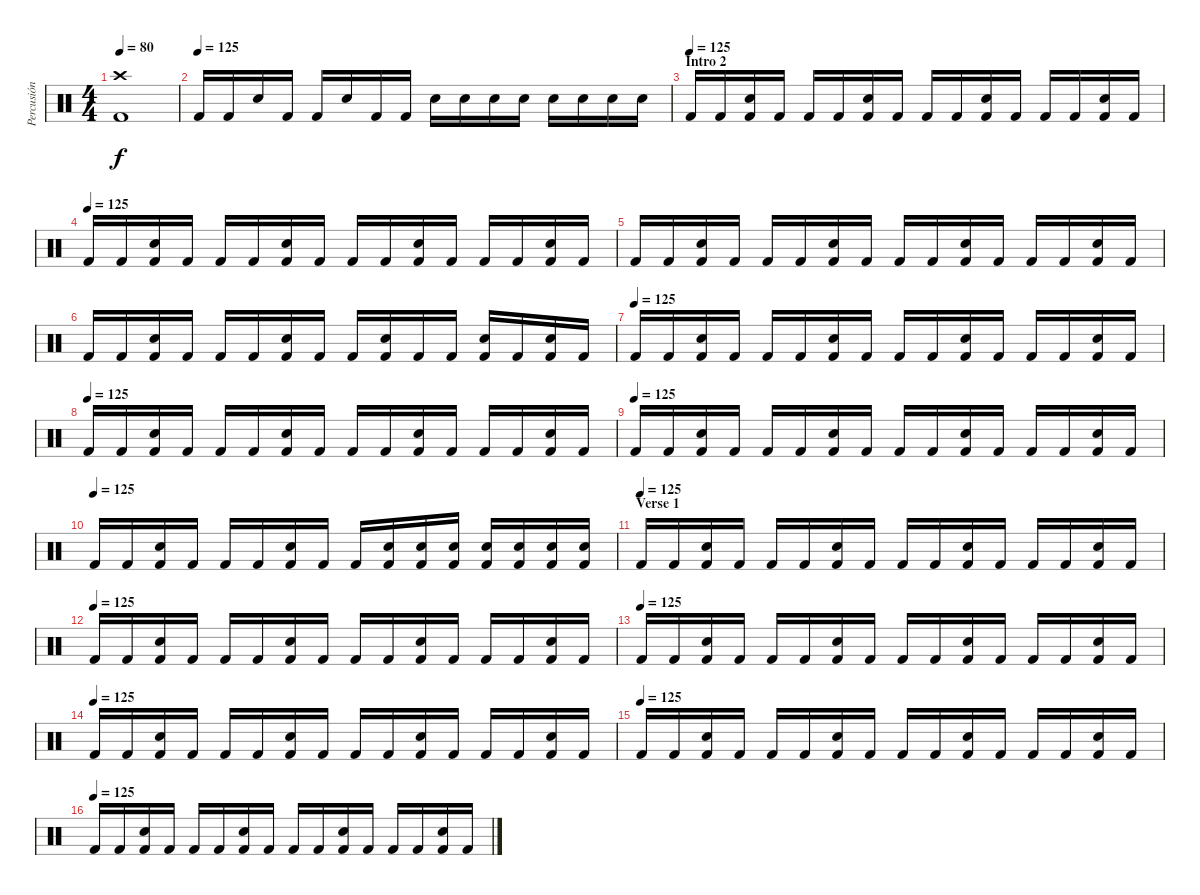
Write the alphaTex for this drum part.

\track ("Percusión" "Percusión") {instrument percussion}
\staff {score}
\articulation defaults
\ts (4 4)
\tempo 80
\clef neutral
\ks c
("Crash high (hit)" "Kick (hit) 2").1{dy f} |
\tempo (125)
"Kick (hit) 2".16 "Kick (hit) 2".16 "Electric Snare (hit)".16 "Kick (hit) 2".16 "Kick (hit) 2".16 "Electric Snare (hit)".16 "Kick (hit) 2".16 "Kick (hit) 2".16 "Electric Snare (hit)".16 "Electric Snare (hit)".16 "Electric Snare (hit)".16 "Electric Snare (hit)".16 "Electric Snare (hit)".16 "Electric Snare (hit)".16 "Electric Snare (hit)".16 "Electric Snare (hit)".16 |
\section ("" "Intro 2")
\tempo (125)
"Kick (hit) 2".16 "Kick (hit) 2".16 ("Electric Snare (hit)" "Kick (hit) 2").16 "Kick (hit) 2".16 "Kick (hit) 2".16 "Kick (hit) 2".16 ("Electric Snare (hit)" "Kick (hit) 2").16 "Kick (hit) 2".16 "Kick (hit) 2".16 "Kick (hit) 2".16 ("Electric Snare (hit)" "Kick (hit) 2").16 "Kick (hit) 2".16 "Kick (hit) 2".16 "Kick (hit) 2".16 ("Electric Snare (hit)" "Kick (hit) 2").16 "Kick (hit) 2".16 |
\tempo (125)
"Kick (hit) 2".16 "Kick (hit) 2".16 ("Electric Snare (hit)" "Kick (hit) 2").16 "Kick (hit) 2".16 "Kick (hit) 2".16 "Kick (hit) 2".16 ("Electric Snare (hit)" "Kick (hit) 2").16 "Kick (hit) 2".16 "Kick (hit) 2".16 "Kick (hit) 2".16 ("Electric Snare (hit)" "Kick (hit) 2").16 "Kick (hit) 2".16 "Kick (hit) 2".16 "Kick (hit) 2".16 ("Electric Snare (hit)" "Kick (hit) 2").16 "Kick (hit) 2".16 |
"Kick (hit) 2".16 "Kick (hit) 2".16 ("Electric Snare (hit)" "Kick (hit) 2").16 "Kick (hit) 2".16 "Kick (hit) 2".16 "Kick (hit) 2".16 ("Electric Snare (hit)" "Kick (hit) 2").16 "Kick (hit) 2".16 "Kick (hit) 2".16 "Kick (hit) 2".16 ("Electric Snare (hit)" "Kick (hit) 2").16 "Kick (hit) 2".16 "Kick (hit) 2".16 "Kick (hit) 2".16 ("Electric Snare (hit)" "Kick (hit) 2").16 "Kick (hit) 2".16 |
"Kick (hit) 2".16 "Kick (hit) 2".16 ("Electric Snare (hit)" "Kick (hit) 2").16 "Kick (hit) 2".16 "Kick (hit) 2".16 "Kick (hit) 2".16 ("Electric Snare (hit)" "Kick (hit) 2").16 "Kick (hit) 2".16 "Kick (hit) 2".16 ("Electric Snare (hit)" "Kick (hit) 2").16 "Kick (hit) 2".16 "Kick (hit) 2".16 ("Electric Snare (hit)" "Kick (hit) 2").16 "Kick (hit) 2".16 ("Electric Snare (hit)" "Kick (hit) 2").16 "Kick (hit) 2".16 |
\tempo (125)
"Kick (hit) 2".16 "Kick (hit) 2".16 ("Electric Snare (hit)" "Kick (hit) 2").16 "Kick (hit) 2".16 "Kick (hit) 2".16 "Kick (hit) 2".16 ("Electric Snare (hit)" "Kick (hit) 2").16 "Kick (hit) 2".16 "Kick (hit) 2".16 "Kick (hit) 2".16 ("Electric Snare (hit)" "Kick (hit) 2").16 "Kick (hit) 2".16 "Kick (hit) 2".16 "Kick (hit) 2".16 ("Electric Snare (hit)" "Kick (hit) 2").16 "Kick (hit) 2".16 |
\tempo (125)
"Kick (hit) 2".16 "Kick (hit) 2".16 ("Electric Snare (hit)" "Kick (hit) 2").16 "Kick (hit) 2".16 "Kick (hit) 2".16 "Kick (hit) 2".16 ("Electric Snare (hit)" "Kick (hit) 2").16 "Kick (hit) 2".16 "Kick (hit) 2".16 "Kick (hit) 2".16 ("Electric Snare (hit)" "Kick (hit) 2").16 "Kick (hit) 2".16 "Kick (hit) 2".16 "Kick (hit) 2".16 ("Electric Snare (hit)" "Kick (hit) 2").16 "Kick (hit) 2".16 |
\tempo (125)
"Kick (hit) 2".16 "Kick (hit) 2".16 ("Electric Snare (hit)" "Kick (hit) 2").16 "Kick (hit) 2".16 "Kick (hit) 2".16 "Kick (hit) 2".16 ("Electric Snare (hit)" "Kick (hit) 2").16 "Kick (hit) 2".16 "Kick (hit) 2".16 "Kick (hit) 2".16 ("Electric Snare (hit)" "Kick (hit) 2").16 "Kick (hit) 2".16 "Kick (hit) 2".16 "Kick (hit) 2".16 ("Electric Snare (hit)" "Kick (hit) 2").16 "Kick (hit) 2".16 |
\tempo (125)
"Kick (hit) 2".16 "Kick (hit) 2".16 ("Electric Snare (hit)" "Kick (hit) 2").16 "Kick (hit) 2".16 "Kick (hit) 2".16 "Kick (hit) 2".16 ("Electric Snare (hit)" "Kick (hit) 2").16 "Kick (hit) 2".16 "Kick (hit) 2".16 ("Electric Snare (hit)" "Kick (hit) 2").16 ("Electric Snare (hit)" "Kick (hit) 2").16 ("Electric Snare (hit)" "Kick (hit) 2").16 ("Electric Snare (hit)" "Kick (hit) 2").16 ("Electric Snare (hit)" "Kick (hit) 2").16 ("Electric Snare (hit)" "Kick (hit) 2").16 ("Electric Snare (hit)" "Kick (hit) 2").16 |
\section ("" "Verse 1")
\tempo (125)
"Kick (hit) 2".16 "Kick (hit) 2".16 ("Electric Snare (hit)" "Kick (hit) 2").16 "Kick (hit) 2".16 "Kick (hit) 2".16 "Kick (hit) 2".16 ("Electric Snare (hit)" "Kick (hit) 2").16 "Kick (hit) 2".16 "Kick (hit) 2".16 "Kick (hit) 2".16 ("Electric Snare (hit)" "Kick (hit) 2").16 "Kick (hit) 2".16 "Kick (hit) 2".16 "Kick (hit) 2".16 ("Electric Snare (hit)" "Kick (hit) 2").16 "Kick (hit) 2".16 |
\tempo (125)
"Kick (hit) 2".16 "Kick (hit) 2".16 ("Electric Snare (hit)" "Kick (hit) 2").16 "Kick (hit) 2".16 "Kick (hit) 2".16 "Kick (hit) 2".16 ("Electric Snare (hit)" "Kick (hit) 2").16 "Kick (hit) 2".16 "Kick (hit) 2".16 "Kick (hit) 2".16 ("Electric Snare (hit)" "Kick (hit) 2").16 "Kick (hit) 2".16 "Kick (hit) 2".16 "Kick (hit) 2".16 ("Electric Snare (hit)" "Kick (hit) 2").16 "Kick (hit) 2".16 |
\tempo (125)
"Kick (hit) 2".16 "Kick (hit) 2".16 ("Electric Snare (hit)" "Kick (hit) 2").16 "Kick (hit) 2".16 "Kick (hit) 2".16 "Kick (hit) 2".16 ("Electric Snare (hit)" "Kick (hit) 2").16 "Kick (hit) 2".16 "Kick (hit) 2".16 "Kick (hit) 2".16 ("Electric Snare (hit)" "Kick (hit) 2").16 "Kick (hit) 2".16 "Kick (hit) 2".16 "Kick (hit) 2".16 ("Electric Snare (hit)" "Kick (hit) 2").16 "Kick (hit) 2".16 |
\tempo (125)
"Kick (hit) 2".16 "Kick (hit) 2".16 ("Electric Snare (hit)" "Kick (hit) 2").16 "Kick (hit) 2".16 "Kick (hit) 2".16 "Kick (hit) 2".16 ("Electric Snare (hit)" "Kick (hit) 2").16 "Kick (hit) 2".16 "Kick (hit) 2".16 "Kick (hit) 2".16 ("Electric Snare (hit)" "Kick (hit) 2").16 "Kick (hit) 2".16 "Kick (hit) 2".16 "Kick (hit) 2".16 ("Electric Snare (hit)" "Kick (hit) 2").16 "Kick (hit) 2".16 |
\tempo (125)
"Kick (hit) 2".16 "Kick (hit) 2".16 ("Electric Snare (hit)" "Kick (hit) 2").16 "Kick (hit) 2".16 "Kick (hit) 2".16 "Kick (hit) 2".16 ("Electric Snare (hit)" "Kick (hit) 2").16 "Kick (hit) 2".16 "Kick (hit) 2".16 "Kick (hit) 2".16 ("Electric Snare (hit)" "Kick (hit) 2").16 "Kick (hit) 2".16 "Kick (hit) 2".16 "Kick (hit) 2".16 ("Electric Snare (hit)" "Kick (hit) 2").16 "Kick (hit) 2".16 |
\tempo (125)
"Kick (hit) 2".16 "Kick (hit) 2".16 ("Electric Snare (hit)" "Kick (hit) 2").16 "Kick (hit) 2".16 "Kick (hit) 2".16 "Kick (hit) 2".16 ("Electric Snare (hit)" "Kick (hit) 2").16 "Kick (hit) 2".16 "Kick (hit) 2".16 "Kick (hit) 2".16 ("Electric Snare (hit)" "Kick (hit) 2").16 "Kick (hit) 2".16 "Kick (hit) 2".16 "Kick (hit) 2".16 ("Electric Snare (hit)" "Kick (hit) 2").16 "Kick (hit) 2".16
